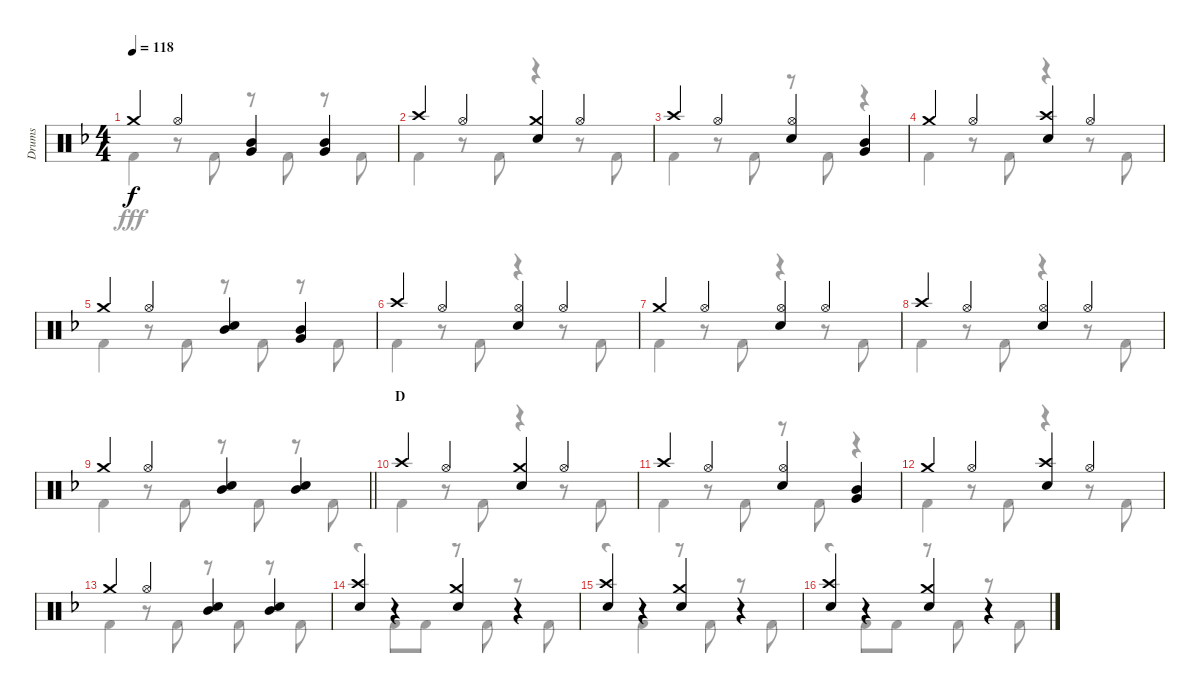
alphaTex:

\track ("Drums" "Drums") {instrument percussion}
\staff {score}
\articulation defaults
\voice
\ts (4 4)
\tempo 118
\clef neutral
\ks f "Crash medium (hit)".4{dy f} "Hi-Hat (open)".4
("Mid Tom (hit)" "Very Low Tom (hit)").4 ("Mid Tom (hit)" "Very Low Tom (hit)").4 |
"Crash high (hit)".4 "Hi-Hat (open)".4 ("Crash medium (hit)" "Snare (hit) 2").4 "Hi-Hat (open)".4 |
"Crash high (hit)".4 "Hi-Hat (open)".4 ("Hi-Hat (open)" "Snare (hit) 2").4 ("Mid Tom (hit)" "Very Low Tom (hit)").4 |
"Crash medium (hit)".4 "Hi-Hat (open)".4 ("Crash high (hit)" "Snare (hit) 2").4 "Hi-Hat (open)".4 |
"Crash medium (hit)".4 "Hi-Hat (open)".4 ("Mid Tom (hit)" "Snare (hit) 2").4 ("Mid Tom (hit)" "Very Low Tom (hit)").4 |
"Crash high (hit)".4 "Hi-Hat (open)".4 ("Hi-Hat (open)" "Snare (hit) 2").4 "Hi-Hat (open)".4 |
"Crash medium (hit)".4 "Hi-Hat (open)".4 ("Hi-Hat (open)" "Snare (hit) 2").4 "Hi-Hat (open)".4 |
"Crash high (hit)".4 "Hi-Hat (open)".4 ("Hi-Hat (open)" "Snare (hit) 2").4 "Hi-Hat (open)".4 |
\barLineRight lightlight "Crash medium (hit)".4 "Hi-Hat (open)".4
("Mid Tom (hit)" "Snare (hit) 2").4 ("Mid Tom (hit)" "Snare (hit) 2").4 |
\section ("" "D")
"Crash high (hit)".4 "Hi-Hat (open)".4 ("Crash medium (hit)" "Snare (hit) 2").4 "Hi-Hat (open)".4 |
"Crash high (hit)".4 "Hi-Hat (open)".4 ("Hi-Hat (open)" "Snare (hit) 2").4 ("Mid Tom (hit)" "Very Low Tom (hit)").4 |
"Crash medium (hit)".4 "Hi-Hat (open)".4 ("Crash high (hit)" "Snare (hit) 2").4 "Hi-Hat (open)".4 |
"Crash medium (hit)".4 "Hi-Hat (open)".4 ("Mid Tom (hit)" "Snare (hit) 2").4 ("Mid Tom (hit)" "Snare (hit) 2").4 |
("Crash high (hit)" "Snare (hit) 2").4 r.4 ("Crash medium (hit)" "Snare (hit) 2").4 r.4 |
("Crash high (hit)" "Snare (hit) 2").4 r.4 ("Crash medium (hit)" "Snare (hit) 2").4 r.4 |
("Crash high (hit)" "Snare (hit) 2").4 r.4 ("Crash medium (hit)" "Snare (hit) 2").4 r.4
\voice
\clef neutral
\ottava regular
\simile none
\ks f "Kick (hit) 2".4{dy fff}
r.8 "Kick (hit) 2".8 r.8 "Kick (hit) 2".8 r.8 "Kick (hit) 2".8 |
"Kick (hit) 2".4 r.8 "Kick (hit) 2".8 r.4 r.8 "Kick (hit) 2".8 |
"Kick (hit) 2".4 r.8 "Kick (hit) 2".8 r.8 "Kick (hit) 2".8 r.4 |
"Kick (hit) 2".4 r.8 "Kick (hit) 2".8 r.4 r.8 "Kick (hit) 2".8 |
"Kick (hit) 2".4 r.8 "Kick (hit) 2".8 r.8 "Kick (hit) 2".8 r.8 "Kick (hit) 2".8 |
"Kick (hit) 2".4 r.8 "Kick (hit) 2".8 r.4 r.8 "Kick (hit) 2".8 |
"Kick (hit) 2".4 r.8 "Kick (hit) 2".8 r.4 r.8 "Kick (hit) 2".8 |
"Kick (hit) 2".4 r.8 "Kick (hit) 2".8 r.4 r.8 "Kick (hit) 2".8 |
\barLineRight lightlight "Kick (hit) 2".4
r.8 "Kick (hit) 2".8 r.8 "Kick (hit) 2".8 r.8 "Kick (hit) 2".8 |
"Kick (hit) 2".4 r.8 "Kick (hit) 2".8 r.4 r.8 "Kick (hit) 2".8 |
"Kick (hit) 2".4 r.8 "Kick (hit) 2".8 r.8 "Kick (hit) 2".8 r.4 |
"Kick (hit) 2".4 r.8 "Kick (hit) 2".8 r.4 r.8 "Kick (hit) 2".8 |
"Kick (hit) 2".4 r.8 "Kick (hit) 2".8 r.8 "Kick (hit) 2".8 r.8 "Kick (hit) 2".8 |
r.4 "Kick (hit) 2".8 "Kick (hit) 2".8 r.8 "Kick (hit) 2".8 r.8 "Kick (hit) 2".8 |
r.4 "Kick (hit) 2".4 r.8 "Kick (hit) 2".8 r.8 "Kick (hit) 2".8 |
r.4 "Kick (hit) 2".8 "Kick (hit) 2".8 r.8 "Kick (hit) 2".8 r.8 "Kick (hit) 2".8
